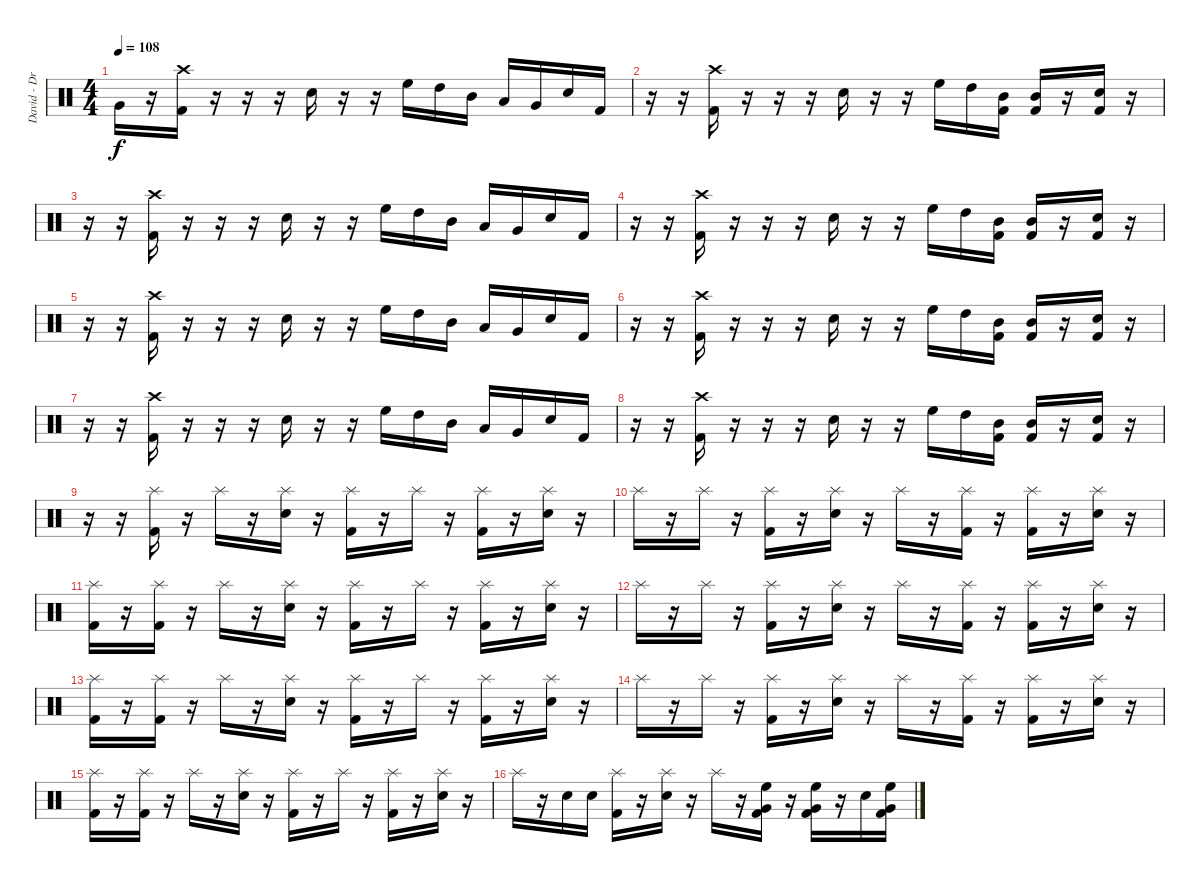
\track ("David - Drums" "David - Dr") {instrument percussion}
\staff {score}
\articulation defaults
\ts (4 4)
\tempo 108
\clef neutral
\ks c "Very Low Tom (hit)".16{dy f}
r.16 ("Crash high (hit)" "Kick (hit) 2").16 r.16 r.16 r.16 "Snare (hit) 2".16 r.16 r.16 "High Floor Tom (hit)".16 "High Tom (hit)".16 "Mid Tom (hit)".16 "Low Tom (hit)".16 "Very Low Tom (hit)".16 "Electric Snare (hit)".16 "Kick (hit) 2".16 |
r.16 r.16 ("Crash high (hit)" "Kick (hit) 2").16 r.16 r.16 r.16 "Snare (hit) 2".16 r.16 r.16 "High Floor Tom (hit)".16 "High Tom (hit)".16 ("Mid Tom (hit)" "Kick (hit) 2").16 ("Mid Tom (hit)" "Kick (hit) 2").16 r.16 ("Electric Snare (hit)" "Kick (hit) 2").16 r.16 |
r.16 r.16 ("Crash high (hit)" "Kick (hit) 2").16 r.16 r.16 r.16 "Snare (hit) 2".16 r.16 r.16 "High Floor Tom (hit)".16 "High Tom (hit)".16 "Mid Tom (hit)".16 "Low Tom (hit)".16 "Very Low Tom (hit)".16 "Electric Snare (hit)".16 "Kick (hit) 2".16 |
r.16 r.16 ("Crash high (hit)" "Kick (hit) 2").16 r.16 r.16 r.16 "Snare (hit) 2".16 r.16 r.16 "High Floor Tom (hit)".16 "High Tom (hit)".16 ("Mid Tom (hit)" "Kick (hit) 2").16 ("Mid Tom (hit)" "Kick (hit) 2").16 r.16 ("Electric Snare (hit)" "Kick (hit) 2").16 r.16 |
r.16 r.16 ("Crash high (hit)" "Kick (hit) 2").16 r.16 r.16 r.16 "Snare (hit) 2".16 r.16 r.16 "High Floor Tom (hit)".16 "High Tom (hit)".16 "Mid Tom (hit)".16 "Low Tom (hit)".16 "Very Low Tom (hit)".16 "Electric Snare (hit)".16 "Kick (hit) 2".16 |
r.16 r.16 ("Crash high (hit)" "Kick (hit) 2").16 r.16 r.16 r.16 "Snare (hit) 2".16 r.16 r.16 "High Floor Tom (hit)".16 "High Tom (hit)".16 ("Mid Tom (hit)" "Kick (hit) 2").16 ("Mid Tom (hit)" "Kick (hit) 2").16 r.16 ("Electric Snare (hit)" "Kick (hit) 2").16 r.16 |
r.16 r.16 ("Crash high (hit)" "Kick (hit) 2").16 r.16 r.16 r.16 "Snare (hit) 2".16 r.16 r.16 "High Floor Tom (hit)".16 "High Tom (hit)".16 "Mid Tom (hit)".16 "Low Tom (hit)".16 "Very Low Tom (hit)".16 "Electric Snare (hit)".16 "Kick (hit) 2".16 |
r.16 r.16 ("Crash high (hit)" "Kick (hit) 2").16 r.16 r.16 r.16 "Snare (hit) 2".16 r.16 r.16 "High Floor Tom (hit)".16 "High Tom (hit)".16 ("Mid Tom (hit)" "Kick (hit) 2").16 ("Mid Tom (hit)" "Kick (hit) 2").16 r.16 ("Electric Snare (hit)" "Kick (hit) 2").16 r.16 |
r.16 r.16 ("Splash (hit)" "Kick (hit) 2").16 r.16 "Splash (hit)".16 r.16 ("Splash (hit)" "Snare (hit) 2").16 r.16 ("Splash (hit)" "Kick (hit) 2").16 r.16 "Splash (hit)".16 r.16 ("Splash (hit)" "Kick (hit) 2").16 r.16 ("Splash (hit)" "Snare (hit) 2").16 r.16 |
"Splash (hit)".16 r.16 "Splash (hit)".16 r.16 ("Splash (hit)" "Kick (hit) 2").16 r.16 ("Splash (hit)" "Snare (hit) 2").16 r.16 "Splash (hit)".16 r.16 ("Splash (hit)" "Kick (hit) 2").16 r.16 ("Splash (hit)" "Kick (hit) 2").16 r.16 ("Splash (hit)" "Snare (hit) 2").16 r.16 |
("Splash (hit)" "Kick (hit) 2").16 r.16 ("Splash (hit)" "Kick (hit) 2").16 r.16 "Splash (hit)".16 r.16 ("Splash (hit)" "Snare (hit) 2").16 r.16 ("Splash (hit)" "Kick (hit) 2").16 r.16 "Splash (hit)".16 r.16 ("Splash (hit)" "Kick (hit) 2").16 r.16 ("Splash (hit)" "Snare (hit) 2").16 r.16 |
"Splash (hit)".16 r.16 "Splash (hit)".16 r.16 ("Splash (hit)" "Kick (hit) 2").16 r.16 ("Splash (hit)" "Snare (hit) 2").16 r.16 "Splash (hit)".16 r.16 ("Splash (hit)" "Kick (hit) 2").16 r.16 ("Splash (hit)" "Kick (hit) 2").16 r.16 ("Splash (hit)" "Snare (hit) 2").16 r.16 |
("Splash (hit)" "Kick (hit) 2").16 r.16 ("Splash (hit)" "Kick (hit) 2").16 r.16 "Splash (hit)".16 r.16 ("Splash (hit)" "Snare (hit) 2").16 r.16 ("Splash (hit)" "Kick (hit) 2").16 r.16 "Splash (hit)".16 r.16 ("Splash (hit)" "Kick (hit) 2").16 r.16 ("Splash (hit)" "Snare (hit) 2").16 r.16 |
"Splash (hit)".16 r.16 "Splash (hit)".16 r.16 ("Splash (hit)" "Kick (hit) 2").16 r.16 ("Splash (hit)" "Snare (hit) 2").16 r.16 "Splash (hit)".16 r.16 ("Splash (hit)" "Kick (hit) 2").16 r.16 ("Splash (hit)" "Kick (hit) 2").16 r.16 ("Splash (hit)" "Snare (hit) 2").16 r.16 |
("Splash (hit)" "Kick (hit) 2").16 r.16 ("Splash (hit)" "Kick (hit) 2").16 r.16 "Splash (hit)".16 r.16 ("Splash (hit)" "Snare (hit) 2").16 r.16 ("Splash (hit)" "Kick (hit) 2").16 r.16 "Splash (hit)".16 r.16 ("Splash (hit)" "Kick (hit) 2").16 r.16 ("Splash (hit)" "Snare (hit) 2").16 r.16 |
"Splash (hit)".16 r.16 "Snare (hit) 2".16 "Snare (hit) 2".16 ("Splash (hit)" "Kick (hit) 2").16 r.16 ("Splash (hit)" "Snare (hit) 2").16 r.16 "Splash (hit)".16 r.16 ("High Floor Tom (hit)" "Very Low Tom (hit)" "Kick (hit) 2").16 r.16 ("High Floor Tom (hit)" "Very Low Tom (hit)" "Kick (hit) 2").16 r.16 "Snare (hit) 2".16 ("High Floor Tom (hit)" "Very Low Tom (hit)" "Kick (hit) 2").16
